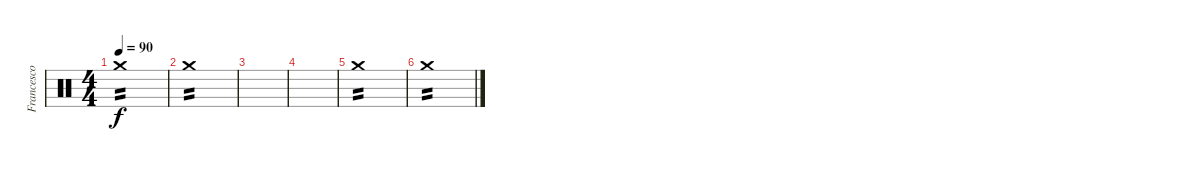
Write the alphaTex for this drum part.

\track ("Francesco -Franz- Valente" "Francesco ") {instrument percussion}
\staff {score}
\articulation defaults
\ts (4 4)
\tempo 90
\clef neutral
\ks c "Crash medium (hit)".1{tp 2 dy f}
|
"Crash medium (hit)".1{tp 2} |
|
|
"Crash medium (hit)".1{tp 2} |
"Crash medium (hit)".1{tp 2}
